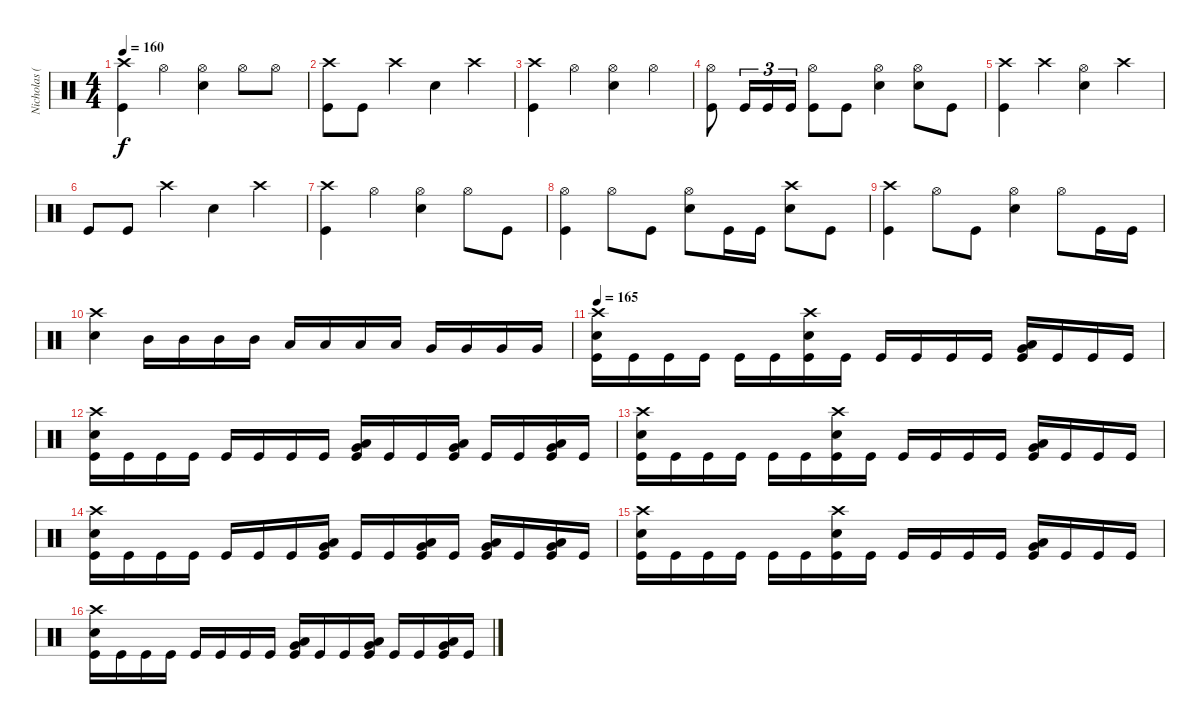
\track ("Nicholas (Drums)" "Nicholas (") {instrument percussion}
\staff {score}
\articulation defaults
\ts (4 4)
\tempo 160
\clef neutral
\ks c
("Crash high (hit)" "Kick (hit)").4{dy f} "Hi-Hat (open)".4 ("Hi-Hat (open)" "Electric Snare (hit)").4 "Hi-Hat (open)".8 "Hi-Hat (open)".8 |
("Crash high (hit)" "Kick (hit)").8 "Kick (hit)".8 "Crash high (hit)".4 "Electric Snare (hit)".4 "Crash high (hit)".4 |
("Crash high (hit)" "Kick (hit)").4 "Hi-Hat (open)".4 ("Hi-Hat (open)" "Electric Snare (hit)").4 "Hi-Hat (open)".4 |
("Hi-Hat (open)" "Kick (hit)").8 "Kick (hit)".16{tu (3 2)} "Kick (hit)".16{tu (3 2)} "Kick (hit)".16{tu (3 2)} ("Hi-Hat (open)" "Kick (hit)").8 "Kick (hit)".8 ("Hi-Hat (open)" "Electric Snare (hit)").4 ("Hi-Hat (open)" "Electric Snare (hit)").8 "Kick (hit)".8 |
("Crash high (hit)" "Kick (hit)").4 "Crash high (hit)".4 ("Hi-Hat (open)" "Electric Snare (hit)").4 "Crash high (hit)".4 |
"Kick (hit)".8 "Kick (hit)".8 "Crash high (hit)".4 "Electric Snare (hit)".4 "Crash high (hit)".4 |
("Crash high (hit)" "Kick (hit)").4 "Hi-Hat (open)".4 ("Hi-Hat (open)" "Electric Snare (hit)").4 "Hi-Hat (open)".8 "Kick (hit)".8 |
("Hi-Hat (open)" "Kick (hit)").4 "Hi-Hat (open)".8 "Kick (hit)".8 ("Hi-Hat (open)" "Electric Snare (hit)").8 "Kick (hit)".16 "Kick (hit)".16 ("Crash high (hit)" "Electric Snare (hit)").8 "Kick (hit)".8 |
("Crash high (hit)" "Kick (hit)").4 "Hi-Hat (open)".8 "Kick (hit)".8 ("Hi-Hat (open)" "Electric Snare (hit)").4 "Hi-Hat (open)".8 "Kick (hit)".16 "Kick (hit)".16 |
("Crash high (hit)" "Electric Snare (hit)").4 "Mid Tom (hit)".16 "Mid Tom (hit)".16 "Mid Tom (hit)".16 "Mid Tom (hit)".16 "Low Tom (hit)".16 "Low Tom (hit)".16 "Low Tom (hit)".16 "Low Tom (hit)".16 "Very Low Tom (hit)".16 "Very Low Tom (hit)".16 "Very Low Tom (hit)".16 "Very Low Tom (hit)".16 |
\tempo 165
("Crash high (hit)" "Electric Snare (hit)" "Kick (hit)").16 "Kick (hit)".16 "Kick (hit)".16 "Kick (hit)".16 "Kick (hit)".16 "Kick (hit)".16 ("Crash high (hit)" "Electric Snare (hit)" "Kick (hit)").16 "Kick (hit)".16 "Kick (hit)".16 "Kick (hit)".16 "Kick (hit)".16 "Kick (hit)".16 ("Low Tom (hit)" "Very Low Tom (hit)" "Kick (hit)").16 "Kick (hit)".16 "Kick (hit)".16 "Kick (hit)".16 |
("Crash high (hit)" "Electric Snare (hit)" "Kick (hit)").16 "Kick (hit)".16 "Kick (hit)".16 "Kick (hit)".16 "Kick (hit)".16 "Kick (hit)".16 "Kick (hit)".16 "Kick (hit)".16 ("Low Tom (hit)" "Very Low Tom (hit)" "Kick (hit)").16 "Kick (hit)".16 "Kick (hit)".16 ("Low Tom (hit)" "Very Low Tom (hit)" "Kick (hit)").16 "Kick (hit)".16 "Kick (hit)".16 ("Low Tom (hit)" "Very Low Tom (hit)" "Kick (hit)").16 "Kick (hit)".16 |
("Crash high (hit)" "Electric Snare (hit)" "Kick (hit)").16 "Kick (hit)".16 "Kick (hit)".16 "Kick (hit)".16 "Kick (hit)".16 "Kick (hit)".16 ("Crash high (hit)" "Electric Snare (hit)" "Kick (hit)").16 "Kick (hit)".16 "Kick (hit)".16 "Kick (hit)".16 "Kick (hit)".16 "Kick (hit)".16 ("Low Tom (hit)" "Very Low Tom (hit)" "Kick (hit)").16 "Kick (hit)".16 "Kick (hit)".16 "Kick (hit)".16 |
("Crash high (hit)" "Electric Snare (hit)" "Kick (hit)").16 "Kick (hit)".16 "Kick (hit)".16 "Kick (hit)".16 "Kick (hit)".16 "Kick (hit)".16 "Kick (hit)".16 ("Low Tom (hit)" "Very Low Tom (hit)" "Kick (hit)").16 "Kick (hit)".16 "Kick (hit)".16 ("Low Tom (hit)" "Very Low Tom (hit)" "Kick (hit)").16 "Kick (hit)".16 ("Low Tom (hit)" "Very Low Tom (hit)" "Kick (hit)").16 "Kick (hit)".16 ("Low Tom (hit)" "Very Low Tom (hit)" "Kick (hit)").16 "Kick (hit)".16 |
("Crash high (hit)" "Electric Snare (hit)" "Kick (hit)").16 "Kick (hit)".16 "Kick (hit)".16 "Kick (hit)".16 "Kick (hit)".16 "Kick (hit)".16 ("Crash high (hit)" "Electric Snare (hit)" "Kick (hit)").16 "Kick (hit)".16 "Kick (hit)".16 "Kick (hit)".16 "Kick (hit)".16 "Kick (hit)".16 ("Low Tom (hit)" "Very Low Tom (hit)" "Kick (hit)").16 "Kick (hit)".16 "Kick (hit)".16 "Kick (hit)".16 |
("Crash high (hit)" "Electric Snare (hit)" "Kick (hit)").16 "Kick (hit)".16 "Kick (hit)".16 "Kick (hit)".16 "Kick (hit)".16 "Kick (hit)".16 "Kick (hit)".16 "Kick (hit)".16 ("Low Tom (hit)" "Very Low Tom (hit)" "Kick (hit)").16 "Kick (hit)".16 "Kick (hit)".16 ("Low Tom (hit)" "Very Low Tom (hit)" "Kick (hit)").16 "Kick (hit)".16 "Kick (hit)".16 ("Low Tom (hit)" "Very Low Tom (hit)" "Kick (hit)").16 "Kick (hit)".16
